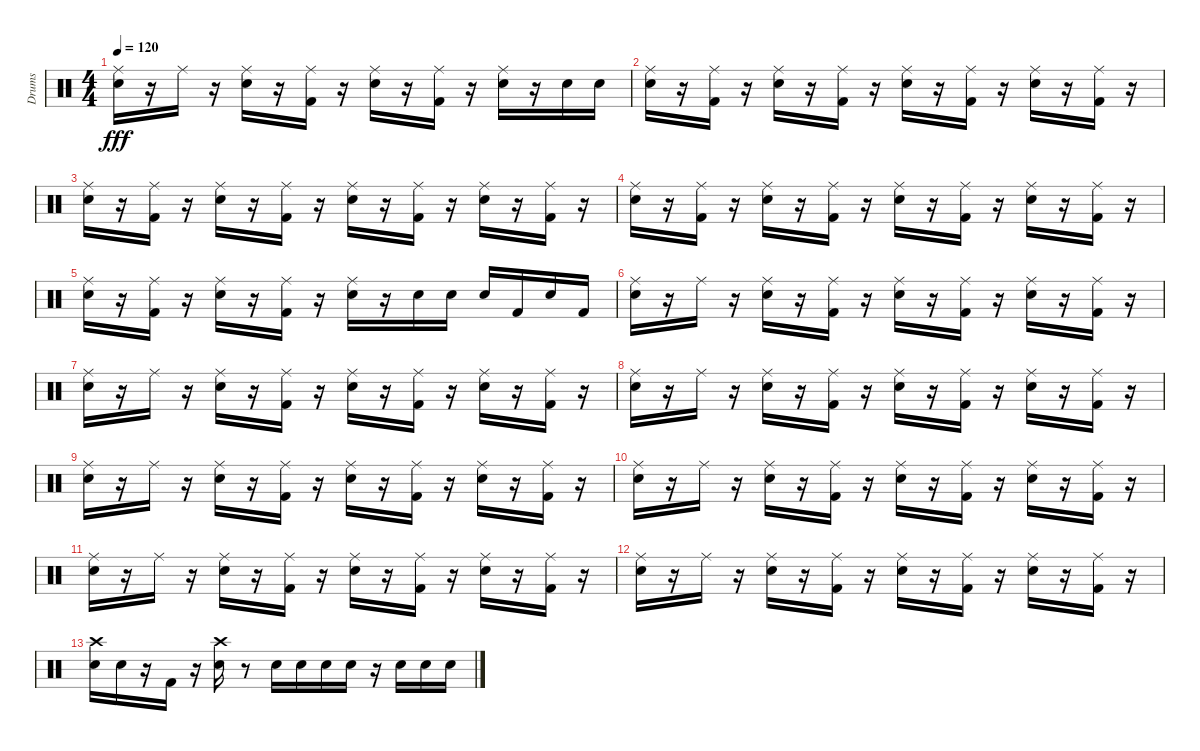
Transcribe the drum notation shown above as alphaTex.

\track ("Drums" "Drums") {instrument percussion}
\staff {score}
\articulation defaults
\ts (4 4)
\tempo 120
\clef neutral
\ks c
("Snare (hit) 2" "Ride (middle)").16{dy fff} r.16 "Ride (middle)".16 r.16 ("Snare (hit) 2" "Ride (middle)").16 r.16 ("Kick (hit) 2" "Ride (middle)").16 r.16 ("Snare (hit) 2" "Ride (middle)").16 r.16 ("Kick (hit) 2" "Ride (middle)").16 r.16 ("Snare (hit) 2" "Ride (middle)").16 r.16 "Snare (hit) 2".16 "Snare (hit) 2".16 |
("Snare (hit) 2" "Ride (middle)").16 r.16 ("Kick (hit) 2" "Ride (middle)").16 r.16 ("Snare (hit) 2" "Ride (middle)").16 r.16 ("Kick (hit) 2" "Ride (middle)").16 r.16 ("Snare (hit) 2" "Ride (middle)").16 r.16 ("Kick (hit) 2" "Ride (middle)").16 r.16 ("Snare (hit) 2" "Ride (middle)").16 r.16 ("Kick (hit) 2" "Ride (middle)").16 r.16 |
("Snare (hit) 2" "Ride (middle)").16 r.16 ("Kick (hit) 2" "Ride (middle)").16 r.16 ("Snare (hit) 2" "Ride (middle)").16 r.16 ("Kick (hit) 2" "Ride (middle)").16 r.16 ("Snare (hit) 2" "Ride (middle)").16 r.16 ("Kick (hit) 2" "Ride (middle)").16 r.16 ("Snare (hit) 2" "Ride (middle)").16 r.16 ("Kick (hit) 2" "Ride (middle)").16 r.16 |
("Snare (hit) 2" "Ride (middle)").16 r.16 ("Kick (hit) 2" "Ride (middle)").16 r.16 ("Snare (hit) 2" "Ride (middle)").16 r.16 ("Kick (hit) 2" "Ride (middle)").16 r.16 ("Snare (hit) 2" "Ride (middle)").16 r.16 ("Kick (hit) 2" "Ride (middle)").16 r.16 ("Snare (hit) 2" "Ride (middle)").16 r.16 ("Kick (hit) 2" "Ride (middle)").16 r.16 |
("Snare (hit) 2" "Ride (middle)").16 r.16 ("Kick (hit) 2" "Ride (middle)").16 r.16 ("Snare (hit) 2" "Ride (middle)").16 r.16 ("Kick (hit) 2" "Ride (middle)").16 r.16 ("Snare (hit) 2" "Ride (middle)").16 r.16 "Snare (hit) 2".16 "Snare (hit) 2".16 "Snare (hit) 2".16 "Kick (hit) 2".16 "Snare (hit) 2".16 "Kick (hit) 2".16 |
("Snare (hit) 2" "Ride (middle)").16 r.16 "Ride (middle)".16 r.16 ("Snare (hit) 2" "Ride (middle)").16 r.16 ("Kick (hit) 2" "Ride (middle)").16 r.16 ("Snare (hit) 2" "Ride (middle)").16 r.16 ("Kick (hit) 2" "Ride (middle)").16 r.16 ("Snare (hit) 2" "Ride (middle)").16 r.16 ("Kick (hit) 2" "Ride (middle)").16 r.16 |
("Snare (hit) 2" "Ride (middle)").16 r.16 "Ride (middle)".16 r.16 ("Snare (hit) 2" "Ride (middle)").16 r.16 ("Kick (hit) 2" "Ride (middle)").16 r.16 ("Snare (hit) 2" "Ride (middle)").16 r.16 ("Kick (hit) 2" "Ride (middle)").16 r.16 ("Snare (hit) 2" "Ride (middle)").16 r.16 ("Kick (hit) 2" "Ride (middle)").16 r.16 |
("Snare (hit) 2" "Ride (middle)").16 r.16 "Ride (middle)".16 r.16 ("Snare (hit) 2" "Ride (middle)").16 r.16 ("Kick (hit) 2" "Ride (middle)").16 r.16 ("Snare (hit) 2" "Ride (middle)").16 r.16 ("Kick (hit) 2" "Ride (middle)").16 r.16 ("Snare (hit) 2" "Ride (middle)").16 r.16 ("Kick (hit) 2" "Ride (middle)").16 r.16 |
("Snare (hit) 2" "Ride (middle)").16 r.16 "Ride (middle)".16 r.16 ("Snare (hit) 2" "Ride (middle)").16 r.16 ("Kick (hit) 2" "Ride (middle)").16 r.16 ("Snare (hit) 2" "Ride (middle)").16 r.16 ("Kick (hit) 2" "Ride (middle)").16 r.16 ("Snare (hit) 2" "Ride (middle)").16 r.16 ("Kick (hit) 2" "Ride (middle)").16 r.16 |
("Snare (hit) 2" "Ride (middle)").16 r.16 "Ride (middle)".16 r.16 ("Snare (hit) 2" "Ride (middle)").16 r.16 ("Kick (hit) 2" "Ride (middle)").16 r.16 ("Snare (hit) 2" "Ride (middle)").16 r.16 ("Kick (hit) 2" "Ride (middle)").16 r.16 ("Snare (hit) 2" "Ride (middle)").16 r.16 ("Kick (hit) 2" "Ride (middle)").16 r.16 |
("Snare (hit) 2" "Ride (middle)").16 r.16 "Ride (middle)".16 r.16 ("Snare (hit) 2" "Ride (middle)").16 r.16 ("Kick (hit) 2" "Ride (middle)").16 r.16 ("Snare (hit) 2" "Ride (middle)").16 r.16 ("Kick (hit) 2" "Ride (middle)").16 r.16 ("Snare (hit) 2" "Ride (middle)").16 r.16 ("Kick (hit) 2" "Ride (middle)").16 r.16 |
("Snare (hit) 2" "Ride (middle)").16 r.16 "Ride (middle)".16 r.16 ("Snare (hit) 2" "Ride (middle)").16 r.16 ("Kick (hit) 2" "Ride (middle)").16 r.16 ("Snare (hit) 2" "Ride (middle)").16 r.16 ("Kick (hit) 2" "Ride (middle)").16 r.16 ("Snare (hit) 2" "Ride (middle)").16 r.16 ("Kick (hit) 2" "Ride (middle)").16 r.16 |
("Snare (hit) 2" "Crash high (hit)").16 "Snare (hit) 2".16 r.16 "Kick (hit) 2".16 r.16 ("Snare (hit) 2" "Crash high (hit)").16 r.8 "Snare (hit) 2".16 "Snare (hit) 2".16 "Snare (hit) 2".16 "Snare (hit) 2".16 r.16 "Snare (hit) 2".16 "Snare (hit) 2".16 "Snare (hit) 2".16
